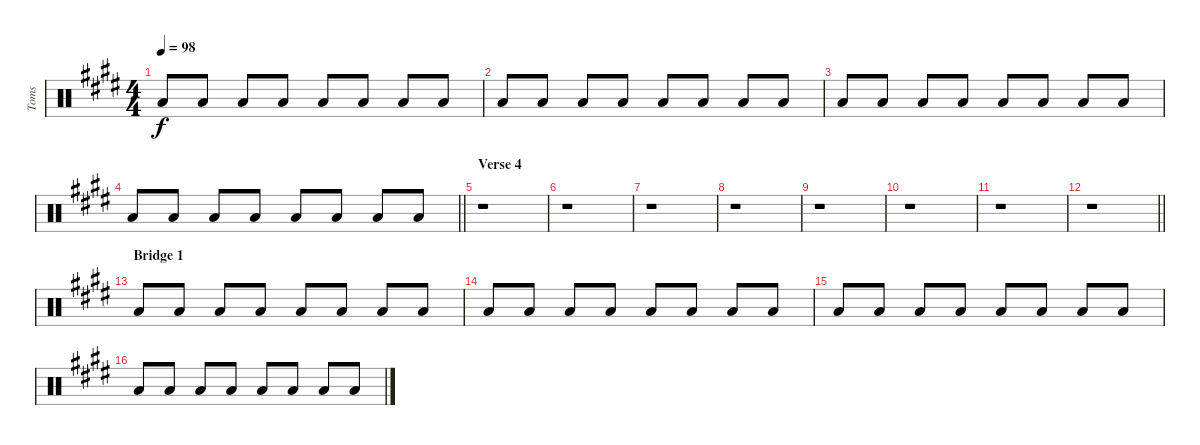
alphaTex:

\track ("Toms" "Toms") {instrument percussion}
\staff {score}
\articulation defaults
\ts (4 4)
\tempo 98
\clef neutral
\ks c#minor "Low Tom (hit)".8{dy f} "Low Floor Tom (hit)".8 "Low Floor Tom (hit)".8 "Low Floor Tom (hit)".8 "Low Tom (hit)".8 "Low Floor Tom (hit)".8 "Low Floor Tom (hit)".8 "Low Floor Tom (hit)".8
|
"Low Tom (hit)".8 "Low Floor Tom (hit)".8 "Low Floor Tom (hit)".8 "Low Floor Tom (hit)".8 "Low Tom (hit)".8 "Low Floor Tom (hit)".8 "Low Floor Tom (hit)".8 "Low Floor Tom (hit)".8 |
"Low Tom (hit)".8 "Low Floor Tom (hit)".8 "Low Floor Tom (hit)".8 "Low Floor Tom (hit)".8 "Low Tom (hit)".8 "Low Floor Tom (hit)".8 "Low Floor Tom (hit)".8 "Low Floor Tom (hit)".8 |
\barLineRight lightlight "Low Tom (hit)".8 "Low Floor Tom (hit)".8 "Low Floor Tom (hit)".8 "Low Floor Tom (hit)".8 "Low Tom (hit)".8 "Low Floor Tom (hit)".8 "Low Floor Tom (hit)".8 "Low Floor Tom (hit)".8
|
\section ("" "Verse 4")
r.1 |
r.1 |
r.1 |
r.1 |
r.1 |
r.1 |
r.1 |
\barLineRight lightlight
r.1 |
\section ("" "Bridge 1")
"Low Tom (hit)".8 "Low Floor Tom (hit)".8 "Low Floor Tom (hit)".8 "Low Floor Tom (hit)".8 "Low Tom (hit)".8 "Low Floor Tom (hit)".8 "Low Floor Tom (hit)".8 "Low Floor Tom (hit)".8 |
"Low Tom (hit)".8 "Low Floor Tom (hit)".8 "Low Floor Tom (hit)".8 "Low Floor Tom (hit)".8 "Low Tom (hit)".8 "Low Floor Tom (hit)".8 "Low Floor Tom (hit)".8 "Low Floor Tom (hit)".8 |
"Low Tom (hit)".8 "Low Floor Tom (hit)".8 "Low Floor Tom (hit)".8 "Low Floor Tom (hit)".8 "Low Tom (hit)".8 "Low Floor Tom (hit)".8 "Low Floor Tom (hit)".8 "Low Floor Tom (hit)".8 |
"Low Tom (hit)".8 "Low Floor Tom (hit)".8 "Low Floor Tom (hit)".8 "Low Floor Tom (hit)".8 "Low Tom (hit)".8 "Low Floor Tom (hit)".8 "Low Floor Tom (hit)".8 "Low Floor Tom (hit)".8
